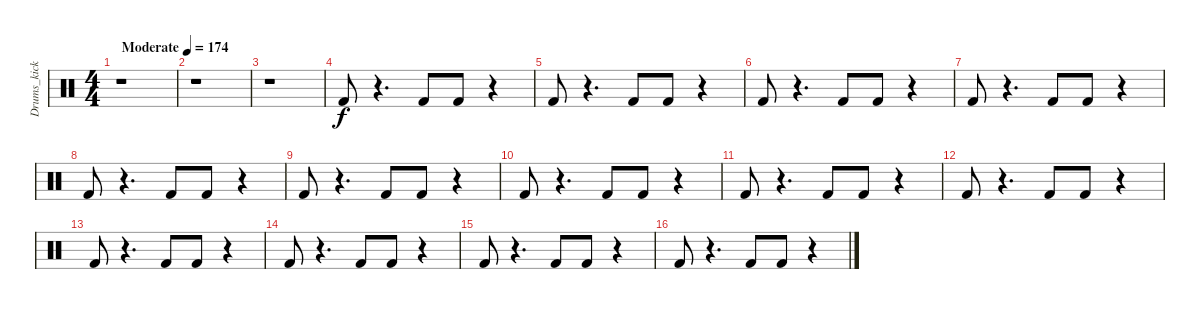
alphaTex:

\track ("Drums_kick" "Drums_kick") {instrument percussion}
\staff {score}
\articulation defaults
\ts (4 4)
\tempo (174 "Moderate")
\clef neutral
\ks c
r.1{dy f} |
r.1 |
r.1 |
"Kick (hit) 2".8 r.4{d} "Kick (hit) 2".8 "Kick (hit) 2".8 r.4 |
"Kick (hit) 2".8 r.4{d} "Kick (hit) 2".8 "Kick (hit) 2".8 r.4 |
"Kick (hit) 2".8 r.4{d} "Kick (hit) 2".8 "Kick (hit) 2".8 r.4 |
"Kick (hit) 2".8 r.4{d} "Kick (hit) 2".8 "Kick (hit) 2".8 r.4 |
"Kick (hit) 2".8 r.4{d} "Kick (hit) 2".8 "Kick (hit) 2".8 r.4 |
"Kick (hit) 2".8 r.4{d} "Kick (hit) 2".8 "Kick (hit) 2".8 r.4 |
"Kick (hit) 2".8 r.4{d} "Kick (hit) 2".8 "Kick (hit) 2".8 r.4 |
"Kick (hit) 2".8 r.4{d} "Kick (hit) 2".8 "Kick (hit) 2".8 r.4 |
"Kick (hit) 2".8 r.4{d} "Kick (hit) 2".8 "Kick (hit) 2".8 r.4 |
"Kick (hit) 2".8 r.4{d} "Kick (hit) 2".8 "Kick (hit) 2".8 r.4 |
"Kick (hit) 2".8 r.4{d} "Kick (hit) 2".8 "Kick (hit) 2".8 r.4 |
"Kick (hit) 2".8 r.4{d} "Kick (hit) 2".8 "Kick (hit) 2".8 r.4 |
"Kick (hit) 2".8 r.4{d} "Kick (hit) 2".8 "Kick (hit) 2".8 r.4
